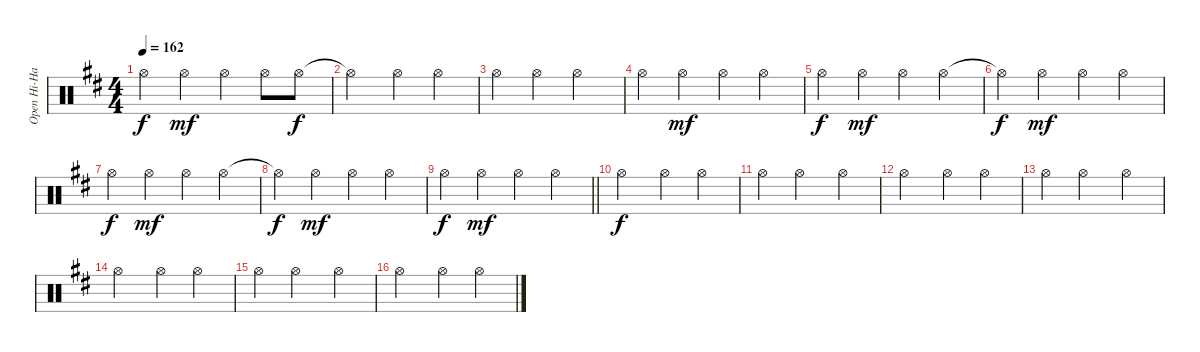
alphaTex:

\track ("Open Hi-Hat" "Open Hi-Ha") {instrument percussion}
\staff {score}
\articulation defaults
\ts (4 4)
\tempo 162
\clef neutral
\ks bminor "Hi-Hat (open)".4{dy f} "Hi-Hat (open)".4{dy mf} "Hi-Hat (open)".4 "Hi-Hat (open)".8 "Hi-Hat (open)".8{dy f}
|
"Hi-Hat (open)"{t}.2 "Hi-Hat (open)".4 "Hi-Hat (open)".4 |
"Hi-Hat (open)".4 "Hi-Hat (open)".4 "Hi-Hat (open)".2 |
"Hi-Hat (open)".4 "Hi-Hat (open)".4{dy mf} "Hi-Hat (open)".4 "Hi-Hat (open)".4 |
"Hi-Hat (open)".4{dy f} "Hi-Hat (open)".4{dy mf} "Hi-Hat (open)".4 "Hi-Hat (open)".4 |
"Hi-Hat (open)"{t}.4{dy f} "Hi-Hat (open)".4{dy mf} "Hi-Hat (open)".4 "Hi-Hat (open)".4 |
"Hi-Hat (open)".4{dy f} "Hi-Hat (open)".4{dy mf} "Hi-Hat (open)".4 "Hi-Hat (open)".4 |
"Hi-Hat (open)"{t}.4{dy f} "Hi-Hat (open)".4{dy mf} "Hi-Hat (open)".4 "Hi-Hat (open)".4 |
\barLineRight lightlight "Hi-Hat (open)".4{dy f} "Hi-Hat (open)".4{dy mf} "Hi-Hat (open)".4 "Hi-Hat (open)".4
|
"Hi-Hat (open)".2{dy f} "Hi-Hat (open)".4 "Hi-Hat (open)".4 |
"Hi-Hat (open)".4 "Hi-Hat (open)".2 "Hi-Hat (open)".4 |
"Hi-Hat (open)".2 "Hi-Hat (open)".4 "Hi-Hat (open)".4 |
"Hi-Hat (open)".4 "Hi-Hat (open)".2 "Hi-Hat (open)".4 |
"Hi-Hat (open)".2 "Hi-Hat (open)".4 "Hi-Hat (open)".4 |
"Hi-Hat (open)".4 "Hi-Hat (open)".2 "Hi-Hat (open)".4 |
"Hi-Hat (open)".2 "Hi-Hat (open)".4 "Hi-Hat (open)".4
